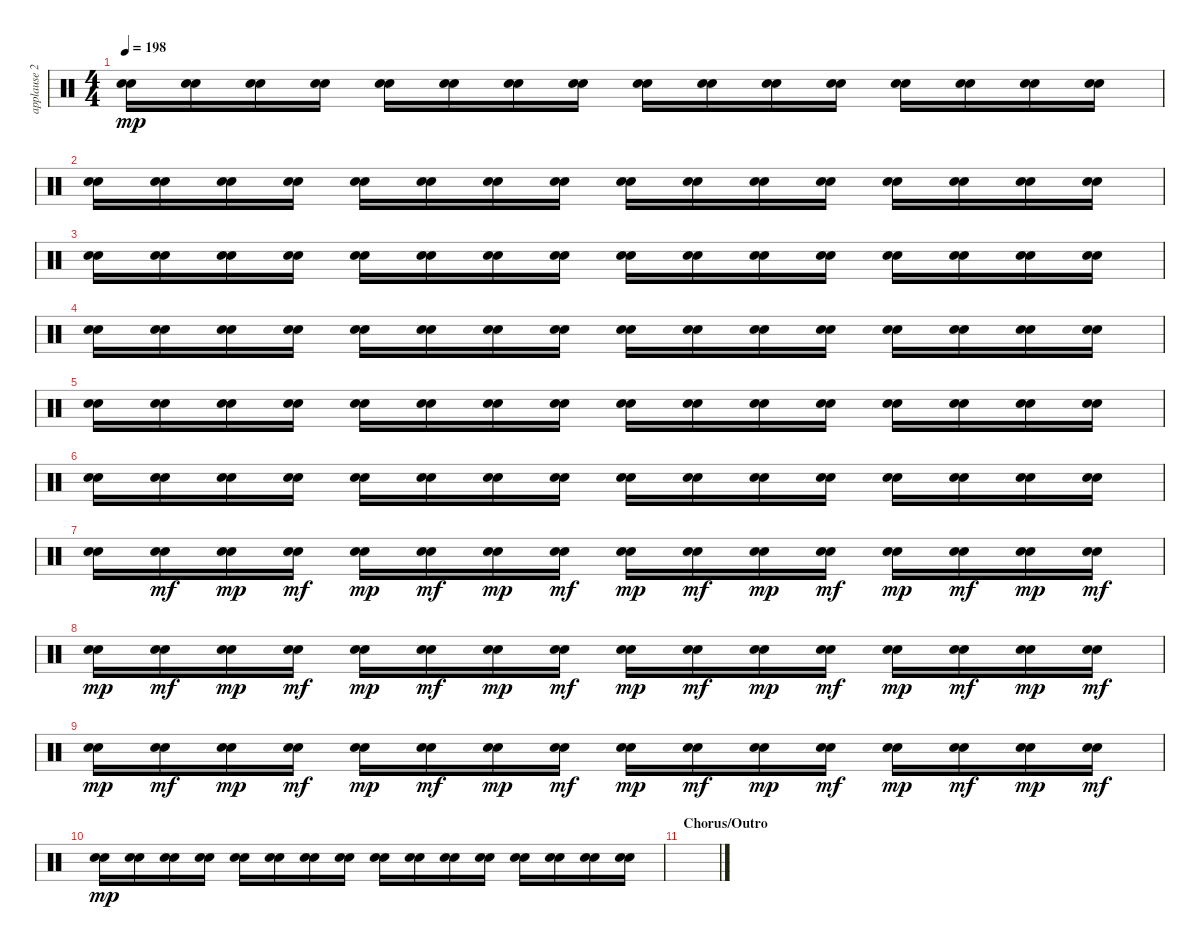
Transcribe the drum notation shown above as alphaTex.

\track ("applause 2" "applause 2") {instrument percussion}
\staff {score}
\articulation defaults
\ts (4 4)
\tempo 198
\clef neutral
\ks c
("Hand Clap (hit)" "Hand Clap (hit)").16{dy mp} ("Hand Clap (hit)" "Hand Clap (hit)").16 ("Hand Clap (hit)" "Hand Clap (hit)").16 ("Hand Clap (hit)" "Hand Clap (hit)").16 ("Hand Clap (hit)" "Hand Clap (hit)").16 ("Hand Clap (hit)" "Hand Clap (hit)").16 ("Hand Clap (hit)" "Hand Clap (hit)").16 ("Hand Clap (hit)" "Hand Clap (hit)").16 ("Hand Clap (hit)" "Hand Clap (hit)").16 ("Hand Clap (hit)" "Hand Clap (hit)").16 ("Hand Clap (hit)" "Hand Clap (hit)").16 ("Hand Clap (hit)" "Hand Clap (hit)").16 ("Hand Clap (hit)" "Hand Clap (hit)").16 ("Hand Clap (hit)" "Hand Clap (hit)").16 ("Hand Clap (hit)" "Hand Clap (hit)").16 ("Hand Clap (hit)" "Hand Clap (hit)").16 |
("Hand Clap (hit)" "Hand Clap (hit)").16 ("Hand Clap (hit)" "Hand Clap (hit)").16 ("Hand Clap (hit)" "Hand Clap (hit)").16 ("Hand Clap (hit)" "Hand Clap (hit)").16 ("Hand Clap (hit)" "Hand Clap (hit)").16 ("Hand Clap (hit)" "Hand Clap (hit)").16 ("Hand Clap (hit)" "Hand Clap (hit)").16 ("Hand Clap (hit)" "Hand Clap (hit)").16 ("Hand Clap (hit)" "Hand Clap (hit)").16 ("Hand Clap (hit)" "Hand Clap (hit)").16 ("Hand Clap (hit)" "Hand Clap (hit)").16 ("Hand Clap (hit)" "Hand Clap (hit)").16 ("Hand Clap (hit)" "Hand Clap (hit)").16 ("Hand Clap (hit)" "Hand Clap (hit)").16 ("Hand Clap (hit)" "Hand Clap (hit)").16 ("Hand Clap (hit)" "Hand Clap (hit)").16 |
("Hand Clap (hit)" "Hand Clap (hit)").16 ("Hand Clap (hit)" "Hand Clap (hit)").16 ("Hand Clap (hit)" "Hand Clap (hit)").16 ("Hand Clap (hit)" "Hand Clap (hit)").16 ("Hand Clap (hit)" "Hand Clap (hit)").16 ("Hand Clap (hit)" "Hand Clap (hit)").16 ("Hand Clap (hit)" "Hand Clap (hit)").16 ("Hand Clap (hit)" "Hand Clap (hit)").16 ("Hand Clap (hit)" "Hand Clap (hit)").16 ("Hand Clap (hit)" "Hand Clap (hit)").16 ("Hand Clap (hit)" "Hand Clap (hit)").16 ("Hand Clap (hit)" "Hand Clap (hit)").16 ("Hand Clap (hit)" "Hand Clap (hit)").16 ("Hand Clap (hit)" "Hand Clap (hit)").16 ("Hand Clap (hit)" "Hand Clap (hit)").16 ("Hand Clap (hit)" "Hand Clap (hit)").16 |
("Hand Clap (hit)" "Hand Clap (hit)").16 ("Hand Clap (hit)" "Hand Clap (hit)").16 ("Hand Clap (hit)" "Hand Clap (hit)").16 ("Hand Clap (hit)" "Hand Clap (hit)").16 ("Hand Clap (hit)" "Hand Clap (hit)").16 ("Hand Clap (hit)" "Hand Clap (hit)").16 ("Hand Clap (hit)" "Hand Clap (hit)").16 ("Hand Clap (hit)" "Hand Clap (hit)").16 ("Hand Clap (hit)" "Hand Clap (hit)").16 ("Hand Clap (hit)" "Hand Clap (hit)").16 ("Hand Clap (hit)" "Hand Clap (hit)").16 ("Hand Clap (hit)" "Hand Clap (hit)").16 ("Hand Clap (hit)" "Hand Clap (hit)").16 ("Hand Clap (hit)" "Hand Clap (hit)").16 ("Hand Clap (hit)" "Hand Clap (hit)").16 ("Hand Clap (hit)" "Hand Clap (hit)").16 |
("Hand Clap (hit)" "Hand Clap (hit)").16 ("Hand Clap (hit)" "Hand Clap (hit)").16 ("Hand Clap (hit)" "Hand Clap (hit)").16 ("Hand Clap (hit)" "Hand Clap (hit)").16 ("Hand Clap (hit)" "Hand Clap (hit)").16 ("Hand Clap (hit)" "Hand Clap (hit)").16 ("Hand Clap (hit)" "Hand Clap (hit)").16 ("Hand Clap (hit)" "Hand Clap (hit)").16 ("Hand Clap (hit)" "Hand Clap (hit)").16 ("Hand Clap (hit)" "Hand Clap (hit)").16 ("Hand Clap (hit)" "Hand Clap (hit)").16 ("Hand Clap (hit)" "Hand Clap (hit)").16 ("Hand Clap (hit)" "Hand Clap (hit)").16 ("Hand Clap (hit)" "Hand Clap (hit)").16 ("Hand Clap (hit)" "Hand Clap (hit)").16 ("Hand Clap (hit)" "Hand Clap (hit)").16 |
("Hand Clap (hit)" "Hand Clap (hit)").16 ("Hand Clap (hit)" "Hand Clap (hit)").16 ("Hand Clap (hit)" "Hand Clap (hit)").16 ("Hand Clap (hit)" "Hand Clap (hit)").16 ("Hand Clap (hit)" "Hand Clap (hit)").16 ("Hand Clap (hit)" "Hand Clap (hit)").16 ("Hand Clap (hit)" "Hand Clap (hit)").16 ("Hand Clap (hit)" "Hand Clap (hit)").16 ("Hand Clap (hit)" "Hand Clap (hit)").16 ("Hand Clap (hit)" "Hand Clap (hit)").16 ("Hand Clap (hit)" "Hand Clap (hit)").16 ("Hand Clap (hit)" "Hand Clap (hit)").16 ("Hand Clap (hit)" "Hand Clap (hit)").16 ("Hand Clap (hit)" "Hand Clap (hit)").16 ("Hand Clap (hit)" "Hand Clap (hit)").16 ("Hand Clap (hit)" "Hand Clap (hit)").16 |
("Hand Clap (hit)" "Hand Clap (hit)").16 ("Hand Clap (hit)" "Hand Clap (hit)").16{dy mf} ("Hand Clap (hit)" "Hand Clap (hit)").16{dy mp} ("Hand Clap (hit)" "Hand Clap (hit)").16{dy mf} ("Hand Clap (hit)" "Hand Clap (hit)").16{dy mp} ("Hand Clap (hit)" "Hand Clap (hit)").16{dy mf} ("Hand Clap (hit)" "Hand Clap (hit)").16{dy mp} ("Hand Clap (hit)" "Hand Clap (hit)").16{dy mf} ("Hand Clap (hit)" "Hand Clap (hit)").16{dy mp} ("Hand Clap (hit)" "Hand Clap (hit)").16{dy mf} ("Hand Clap (hit)" "Hand Clap (hit)").16{dy mp} ("Hand Clap (hit)" "Hand Clap (hit)").16{dy mf} ("Hand Clap (hit)" "Hand Clap (hit)").16{dy mp} ("Hand Clap (hit)" "Hand Clap (hit)").16{dy mf} ("Hand Clap (hit)" "Hand Clap (hit)").16{dy mp} ("Hand Clap (hit)" "Hand Clap (hit)").16{dy mf} |
("Hand Clap (hit)" "Hand Clap (hit)").16{dy mp} ("Hand Clap (hit)" "Hand Clap (hit)").16{dy mf} ("Hand Clap (hit)" "Hand Clap (hit)").16{dy mp} ("Hand Clap (hit)" "Hand Clap (hit)").16{dy mf} ("Hand Clap (hit)" "Hand Clap (hit)").16{dy mp} ("Hand Clap (hit)" "Hand Clap (hit)").16{dy mf} ("Hand Clap (hit)" "Hand Clap (hit)").16{dy mp} ("Hand Clap (hit)" "Hand Clap (hit)").16{dy mf} ("Hand Clap (hit)" "Hand Clap (hit)").16{dy mp} ("Hand Clap (hit)" "Hand Clap (hit)").16{dy mf} ("Hand Clap (hit)" "Hand Clap (hit)").16{dy mp} ("Hand Clap (hit)" "Hand Clap (hit)").16{dy mf} ("Hand Clap (hit)" "Hand Clap (hit)").16{dy mp} ("Hand Clap (hit)" "Hand Clap (hit)").16{dy mf} ("Hand Clap (hit)" "Hand Clap (hit)").16{dy mp} ("Hand Clap (hit)" "Hand Clap (hit)").16{dy mf} |
("Hand Clap (hit)" "Hand Clap (hit)").16{dy mp} ("Hand Clap (hit)" "Hand Clap (hit)").16{dy mf} ("Hand Clap (hit)" "Hand Clap (hit)").16{dy mp} ("Hand Clap (hit)" "Hand Clap (hit)").16{dy mf} ("Hand Clap (hit)" "Hand Clap (hit)").16{dy mp} ("Hand Clap (hit)" "Hand Clap (hit)").16{dy mf} ("Hand Clap (hit)" "Hand Clap (hit)").16{dy mp} ("Hand Clap (hit)" "Hand Clap (hit)").16{dy mf} ("Hand Clap (hit)" "Hand Clap (hit)").16{dy mp} ("Hand Clap (hit)" "Hand Clap (hit)").16{dy mf} ("Hand Clap (hit)" "Hand Clap (hit)").16{dy mp} ("Hand Clap (hit)" "Hand Clap (hit)").16{dy mf} ("Hand Clap (hit)" "Hand Clap (hit)").16{dy mp} ("Hand Clap (hit)" "Hand Clap (hit)").16{dy mf} ("Hand Clap (hit)" "Hand Clap (hit)").16{dy mp} ("Hand Clap (hit)" "Hand Clap (hit)").16{dy mf} |
("Hand Clap (hit)" "Hand Clap (hit)").16{dy mp} ("Hand Clap (hit)" "Hand Clap (hit)").16 ("Hand Clap (hit)" "Hand Clap (hit)").16 ("Hand Clap (hit)" "Hand Clap (hit)").16 ("Hand Clap (hit)" "Hand Clap (hit)").16 ("Hand Clap (hit)" "Hand Clap (hit)").16 ("Hand Clap (hit)" "Hand Clap (hit)").16 ("Hand Clap (hit)" "Hand Clap (hit)").16 ("Hand Clap (hit)" "Hand Clap (hit)").16 ("Hand Clap (hit)" "Hand Clap (hit)").16 ("Hand Clap (hit)" "Hand Clap (hit)").16 ("Hand Clap (hit)" "Hand Clap (hit)").16 ("Hand Clap (hit)" "Hand Clap (hit)").16 ("Hand Clap (hit)" "Hand Clap (hit)").16 ("Hand Clap (hit)" "Hand Clap (hit)").16 ("Hand Clap (hit)" "Hand Clap (hit)").16 |
\section ("" "Chorus/Outro")
